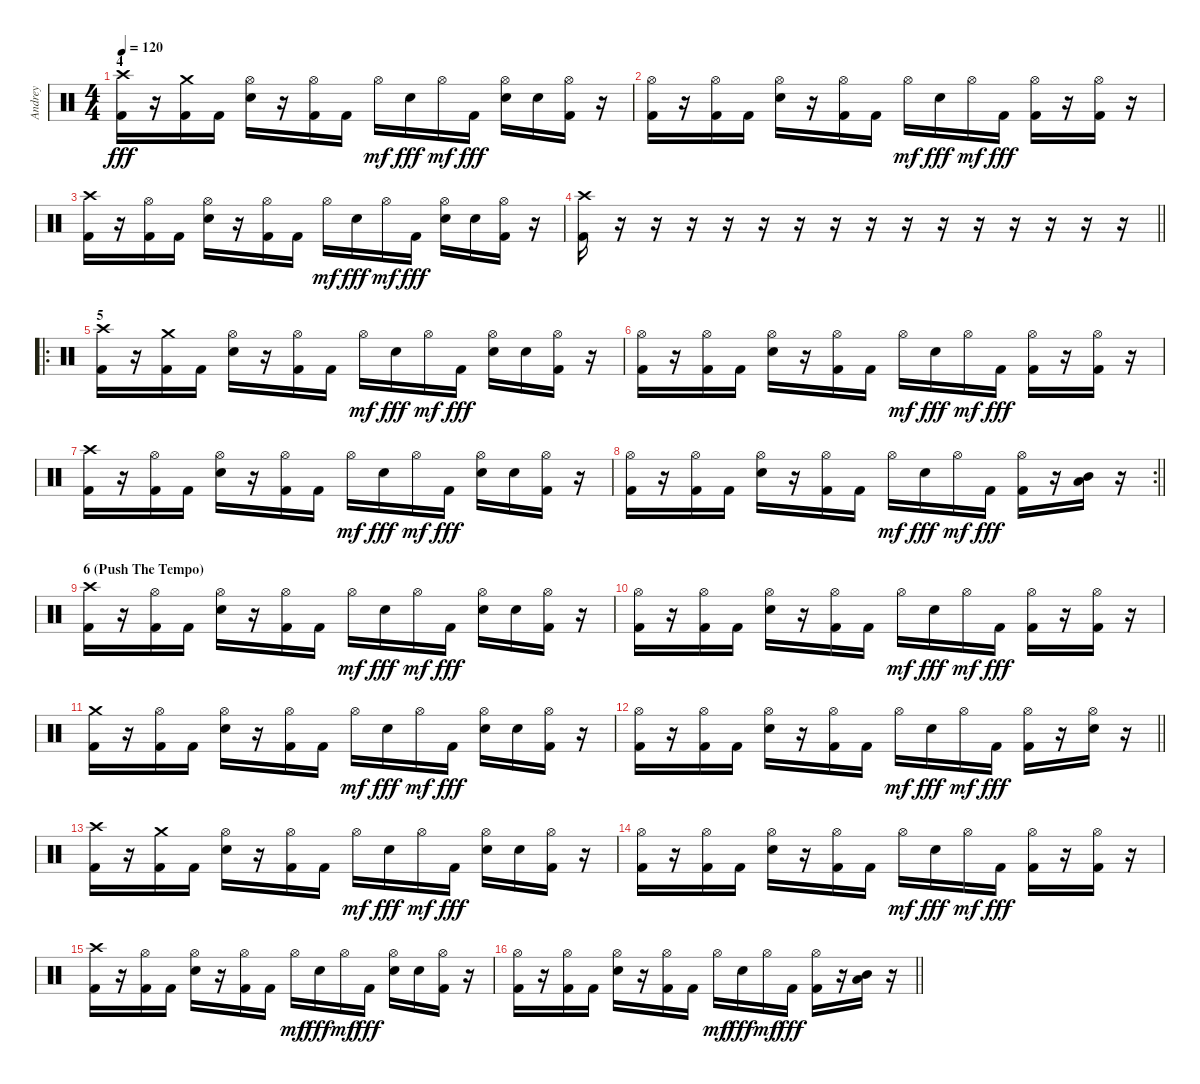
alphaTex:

\track ("Andrey" "Andrey") {instrument percussion}
\staff {score}
\articulation defaults
\ts (4 4)
\section ("" "4")
\tempo 120
\clef neutral
\ks c
("Crash high (hit)" "Kick (hit) 2").16{dy fff} r.16 ("Crash medium (hit)" "Kick (hit) 2").16 "Kick (hit) 2".16 ("Hi-Hat (open)" "Snare (hit) 2").16 r.16 ("Hi-Hat (open)" "Kick (hit) 2").16 "Kick (hit) 2".16 "Hi-Hat (open)".16{dy mf} "Snare (hit) 2".16{dy fff} "Hi-Hat (open)".16{dy mf} "Kick (hit) 2".16{dy fff} ("Hi-Hat (open)" "Snare (hit) 2").16 "Snare (hit) 2".16 ("Hi-Hat (open)" "Kick (hit) 2").16 r.16 |
("Hi-Hat (open)" "Kick (hit) 2").16 r.16 ("Hi-Hat (open)" "Kick (hit) 2").16 "Kick (hit) 2".16 ("Hi-Hat (open)" "Snare (hit) 2").16 r.16 ("Hi-Hat (open)" "Kick (hit) 2").16 "Kick (hit) 2".16 "Hi-Hat (open)".16{dy mf} "Snare (hit) 2".16{dy fff} "Hi-Hat (open)".16{dy mf} "Kick (hit) 2".16{dy fff} ("Hi-Hat (open)" "Kick (hit) 2").16 r.16 ("Hi-Hat (open)" "Kick (hit) 2").16 r.16 |
("Crash high (hit)" "Kick (hit) 2").16 r.16 ("Hi-Hat (open)" "Kick (hit) 2").16 "Kick (hit) 2".16 ("Hi-Hat (open)" "Snare (hit) 2").16 r.16 ("Hi-Hat (open)" "Kick (hit) 2").16 "Kick (hit) 2".16 "Hi-Hat (open)".16{dy mf} "Snare (hit) 2".16{dy fff} "Hi-Hat (open)".16{dy mf} "Kick (hit) 2".16{dy fff} ("Hi-Hat (open)" "Snare (hit) 2").16 "Snare (hit) 2".16 ("Hi-Hat (open)" "Kick (hit) 2").16 r.16 |
\barLineRight lightlight
("Crash high (hit)" "Kick (hit) 2").16 r.16 r.16{volume 0} r.16 r.16 r.16 r.16 r.16 r.16 r.16 r.16 r.16 r.16 r.16 r.16 r.16 |
\ro
\section ("" "5")
("Crash high (hit)" "Kick (hit) 2").16{volume 16} r.16 ("Crash medium (hit)" "Kick (hit) 2").16 "Kick (hit) 2".16 ("Hi-Hat (open)" "Snare (hit) 2").16 r.16 ("Hi-Hat (open)" "Kick (hit) 2").16 "Kick (hit) 2".16 "Hi-Hat (open)".16{dy mf} "Snare (hit) 2".16{dy fff} "Hi-Hat (open)".16{dy mf} "Kick (hit) 2".16{dy fff} ("Hi-Hat (open)" "Snare (hit) 2").16 "Snare (hit) 2".16 ("Hi-Hat (open)" "Kick (hit) 2").16 r.16 |
("Hi-Hat (open)" "Kick (hit) 2").16 r.16 ("Hi-Hat (open)" "Kick (hit) 2").16 "Kick (hit) 2".16 ("Hi-Hat (open)" "Snare (hit) 2").16 r.16 ("Hi-Hat (open)" "Kick (hit) 2").16 "Kick (hit) 2".16 "Hi-Hat (open)".16{dy mf} "Snare (hit) 2".16{dy fff} "Hi-Hat (open)".16{dy mf} "Kick (hit) 2".16{dy fff} ("Hi-Hat (open)" "Kick (hit) 2").16 r.16 ("Hi-Hat (open)" "Kick (hit) 2").16 r.16 |
("Crash high (hit)" "Kick (hit) 2").16 r.16 ("Hi-Hat (open)" "Kick (hit) 2").16 "Kick (hit) 2".16 ("Hi-Hat (open)" "Snare (hit) 2").16 r.16 ("Hi-Hat (open)" "Kick (hit) 2").16 "Kick (hit) 2".16 "Hi-Hat (open)".16{dy mf} "Snare (hit) 2".16{dy fff} "Hi-Hat (open)".16{dy mf} "Kick (hit) 2".16{dy fff} ("Hi-Hat (open)" "Snare (hit) 2").16 "Snare (hit) 2".16 ("Hi-Hat (open)" "Kick (hit) 2").16 r.16 |
\rc 2
\barLineRight lightlight
("Hi-Hat (open)" "Kick (hit) 2").16 r.16 ("Hi-Hat (open)" "Kick (hit) 2").16 "Kick (hit) 2".16 ("Hi-Hat (open)" "Snare (hit) 2").16 r.16 ("Hi-Hat (open)" "Kick (hit) 2").16 "Kick (hit) 2".16 "Hi-Hat (open)".16{dy mf} "Snare (hit) 2".16{dy fff} "Hi-Hat (open)".16{dy mf} "Kick (hit) 2".16{dy fff} ("Hi-Hat (open)" "Kick (hit) 2").16 r.16 ("Low Tom (hit)" "Mid Tom (hit)").16 r.16 |
\section ("" "6 (Push The Tempo)")
("Crash high (hit)" "Kick (hit) 2").16 r.16 ("Hi-Hat (open)" "Kick (hit) 2").16 "Kick (hit) 2".16 ("Hi-Hat (open)" "Snare (hit) 2").16 r.16 ("Hi-Hat (open)" "Kick (hit) 2").16 "Kick (hit) 2".16 "Hi-Hat (open)".16{dy mf} "Snare (hit) 2".16{dy fff} "Hi-Hat (open)".16{dy mf} "Kick (hit) 2".16{dy fff} ("Hi-Hat (open)" "Snare (hit) 2").16 "Snare (hit) 2".16 ("Hi-Hat (open)" "Kick (hit) 2").16 r.16 |
("Hi-Hat (open)" "Kick (hit) 2").16 r.16 ("Hi-Hat (open)" "Kick (hit) 2").16 "Kick (hit) 2".16 ("Hi-Hat (open)" "Snare (hit) 2").16 r.16 ("Hi-Hat (open)" "Kick (hit) 2").16 "Kick (hit) 2".16 "Hi-Hat (open)".16{dy mf} "Snare (hit) 2".16{dy fff} "Hi-Hat (open)".16{dy mf} "Kick (hit) 2".16{dy fff} ("Hi-Hat (open)" "Kick (hit) 2").16 r.16 ("Hi-Hat (open)" "Kick (hit) 2").16 r.16 |
("Crash medium (hit)" "Kick (hit) 2").16 r.16 ("Hi-Hat (open)" "Kick (hit) 2").16 "Kick (hit) 2".16 ("Hi-Hat (open)" "Snare (hit) 2").16 r.16 ("Hi-Hat (open)" "Kick (hit) 2").16 "Kick (hit) 2".16 "Hi-Hat (open)".16{dy mf} "Snare (hit) 2".16{dy fff} "Hi-Hat (open)".16{dy mf} "Kick (hit) 2".16{dy fff} ("Hi-Hat (open)" "Snare (hit) 2").16 "Snare (hit) 2".16 ("Hi-Hat (open)" "Kick (hit) 2").16 r.16 |
\barLineRight lightlight
("Hi-Hat (open)" "Kick (hit) 2").16 r.16 ("Hi-Hat (open)" "Kick (hit) 2").16 "Kick (hit) 2".16 ("Hi-Hat (open)" "Snare (hit) 2").16 r.16 ("Hi-Hat (open)" "Kick (hit) 2").16 "Kick (hit) 2".16 "Hi-Hat (open)".16{dy mf} "Snare (hit) 2".16{dy fff} "Hi-Hat (open)".16{dy mf} "Kick (hit) 2".16{dy fff} ("Hi-Hat (open)" "Kick (hit) 2").16 r.16 ("Hi-Hat (open)" "Snare (hit) 2").16 r.16 |
("Crash high (hit)" "Kick (hit) 2").16 r.16 ("Crash medium (hit)" "Kick (hit) 2").16 "Kick (hit) 2".16 ("Hi-Hat (open)" "Snare (hit) 2").16 r.16 ("Hi-Hat (open)" "Kick (hit) 2").16 "Kick (hit) 2".16 "Hi-Hat (open)".16{dy mf} "Snare (hit) 2".16{dy fff} "Hi-Hat (open)".16{dy mf} "Kick (hit) 2".16{dy fff} ("Hi-Hat (open)" "Snare (hit) 2").16 "Snare (hit) 2".16 ("Hi-Hat (open)" "Kick (hit) 2").16 r.16 |
("Hi-Hat (open)" "Kick (hit) 2").16 r.16 ("Hi-Hat (open)" "Kick (hit) 2").16 "Kick (hit) 2".16 ("Hi-Hat (open)" "Snare (hit) 2").16 r.16 ("Hi-Hat (open)" "Kick (hit) 2").16 "Kick (hit) 2".16 "Hi-Hat (open)".16{dy mf} "Snare (hit) 2".16{dy fff} "Hi-Hat (open)".16{dy mf} "Kick (hit) 2".16{dy fff} ("Hi-Hat (open)" "Kick (hit) 2").16 r.16 ("Hi-Hat (open)" "Kick (hit) 2").16 r.16 |
("Crash high (hit)" "Kick (hit) 2").16 r.16 ("Hi-Hat (open)" "Kick (hit) 2").16 "Kick (hit) 2".16 ("Hi-Hat (open)" "Snare (hit) 2").16 r.16 ("Hi-Hat (open)" "Kick (hit) 2").16 "Kick (hit) 2".16 "Hi-Hat (open)".16{dy mf} "Snare (hit) 2".16{dy fff} "Hi-Hat (open)".16{dy mf} "Kick (hit) 2".16{dy fff} ("Hi-Hat (open)" "Snare (hit) 2").16 "Snare (hit) 2".16 ("Hi-Hat (open)" "Kick (hit) 2").16 r.16 |
\barLineRight lightlight
("Hi-Hat (open)" "Kick (hit) 2").16 r.16 ("Hi-Hat (open)" "Kick (hit) 2").16 "Kick (hit) 2".16 ("Hi-Hat (open)" "Snare (hit) 2").16 r.16 ("Hi-Hat (open)" "Kick (hit) 2").16 "Kick (hit) 2".16 "Hi-Hat (open)".16{dy mf} "Snare (hit) 2".16{dy fff} "Hi-Hat (open)".16{dy mf} "Kick (hit) 2".16{dy fff} ("Hi-Hat (open)" "Kick (hit) 2").16 r.16 ("Low Tom (hit)" "Mid Tom (hit)").16 r.16
